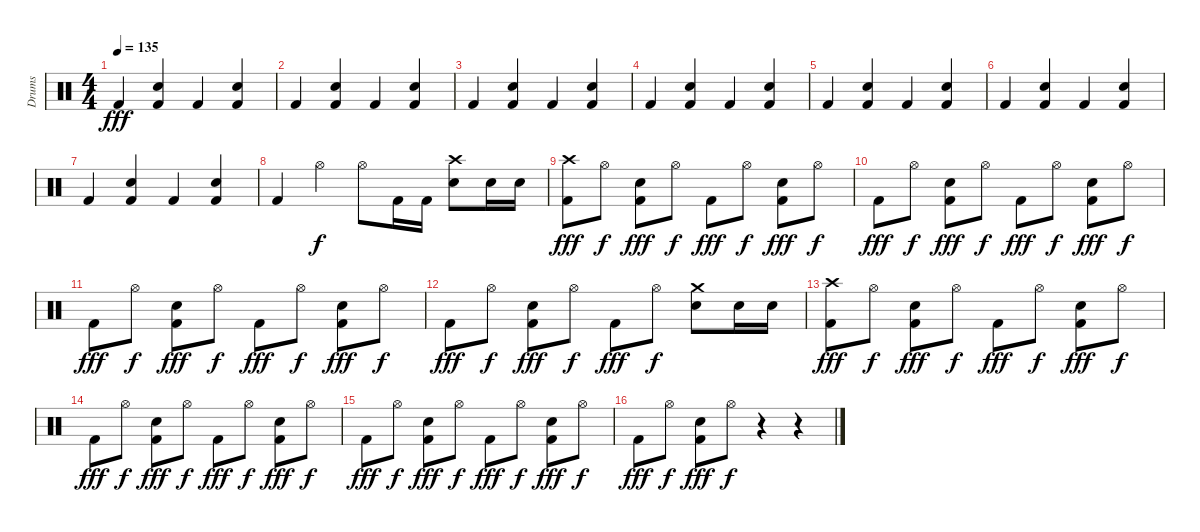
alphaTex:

\track ("Drums" "Drums") {instrument percussion}
\staff {score}
\articulation defaults
\ts (4 4)
\tempo 135
\clef neutral
\ks c "Kick (hit) 2".4{dy fff}
("Kick (hit) 2" "Snare (hit) 2").4 "Kick (hit) 2".4 ("Kick (hit) 2" "Snare (hit) 2").4 |
"Kick (hit) 2".4 ("Kick (hit) 2" "Snare (hit) 2").4 "Kick (hit) 2".4 ("Kick (hit) 2" "Snare (hit) 2").4 |
"Kick (hit) 2".4 ("Kick (hit) 2" "Snare (hit) 2").4 "Kick (hit) 2".4 ("Kick (hit) 2" "Snare (hit) 2").4 |
"Kick (hit) 2".4 ("Kick (hit) 2" "Snare (hit) 2").4 "Kick (hit) 2".4 ("Kick (hit) 2" "Snare (hit) 2").4 |
"Kick (hit) 2".4 ("Kick (hit) 2" "Snare (hit) 2").4 "Kick (hit) 2".4 ("Kick (hit) 2" "Snare (hit) 2").4 |
"Kick (hit) 2".4 ("Kick (hit) 2" "Snare (hit) 2").4 "Kick (hit) 2".4 ("Kick (hit) 2" "Snare (hit) 2").4 |
"Kick (hit) 2".4 ("Kick (hit) 2" "Snare (hit) 2").4 "Kick (hit) 2".4 ("Kick (hit) 2" "Snare (hit) 2").4 |
"Kick (hit) 2".4 "Hi-Hat (open)".4{dy f} "Hi-Hat (open)".8 "Kick (hit) 2".16 "Kick (hit) 2".16 ("Snare (hit) 2" "Crash high (hit)").8 "Snare (hit) 2".16 "Snare (hit) 2".16 |
("Kick (hit) 2" "Crash high (hit)").8{dy fff} "Hi-Hat (open)".8{dy f} ("Kick (hit) 2" "Snare (hit) 2").8{dy fff} "Hi-Hat (open)".8{dy f} "Kick (hit) 2".8{dy fff} "Hi-Hat (open)".8{dy f} ("Kick (hit) 2" "Snare (hit) 2").8{dy fff} "Hi-Hat (open)".8{dy f} |
"Kick (hit) 2".8{dy fff} "Hi-Hat (open)".8{dy f} ("Kick (hit) 2" "Snare (hit) 2").8{dy fff} "Hi-Hat (open)".8{dy f} "Kick (hit) 2".8{dy fff} "Hi-Hat (open)".8{dy f} ("Kick (hit) 2" "Snare (hit) 2").8{dy fff} "Hi-Hat (open)".8{dy f} |
"Kick (hit) 2".8{dy fff} "Hi-Hat (open)".8{dy f} ("Kick (hit) 2" "Snare (hit) 2").8{dy fff} "Hi-Hat (open)".8{dy f} "Kick (hit) 2".8{dy fff} "Hi-Hat (open)".8{dy f} ("Kick (hit) 2" "Snare (hit) 2").8{dy fff} "Hi-Hat (open)".8{dy f} |
"Kick (hit) 2".8{dy fff} "Hi-Hat (open)".8{dy f} ("Kick (hit) 2" "Snare (hit) 2").8{dy fff} "Hi-Hat (open)".8{dy f} "Kick (hit) 2".8{dy fff} "Hi-Hat (open)".8{dy f} ("Snare (hit) 2" "Crash medium (hit)").8 "Snare (hit) 2".16 "Snare (hit) 2".16 |
("Kick (hit) 2" "Crash high (hit)").8{dy fff} "Hi-Hat (open)".8{dy f} ("Kick (hit) 2" "Snare (hit) 2").8{dy fff} "Hi-Hat (open)".8{dy f} "Kick (hit) 2".8{dy fff} "Hi-Hat (open)".8{dy f} ("Kick (hit) 2" "Snare (hit) 2").8{dy fff} "Hi-Hat (open)".8{dy f} |
"Kick (hit) 2".8{dy fff} "Hi-Hat (open)".8{dy f} ("Kick (hit) 2" "Snare (hit) 2").8{dy fff} "Hi-Hat (open)".8{dy f} "Kick (hit) 2".8{dy fff} "Hi-Hat (open)".8{dy f} ("Kick (hit) 2" "Snare (hit) 2").8{dy fff} "Hi-Hat (open)".8{dy f} |
"Kick (hit) 2".8{dy fff} "Hi-Hat (open)".8{dy f} ("Kick (hit) 2" "Snare (hit) 2").8{dy fff} "Hi-Hat (open)".8{dy f} "Kick (hit) 2".8{dy fff} "Hi-Hat (open)".8{dy f} ("Kick (hit) 2" "Snare (hit) 2").8{dy fff} "Hi-Hat (open)".8{dy f} |
"Kick (hit) 2".8{dy fff} "Hi-Hat (open)".8{dy f} ("Kick (hit) 2" "Snare (hit) 2").8{dy fff} "Hi-Hat (open)".8{dy f} r.4 r.4
